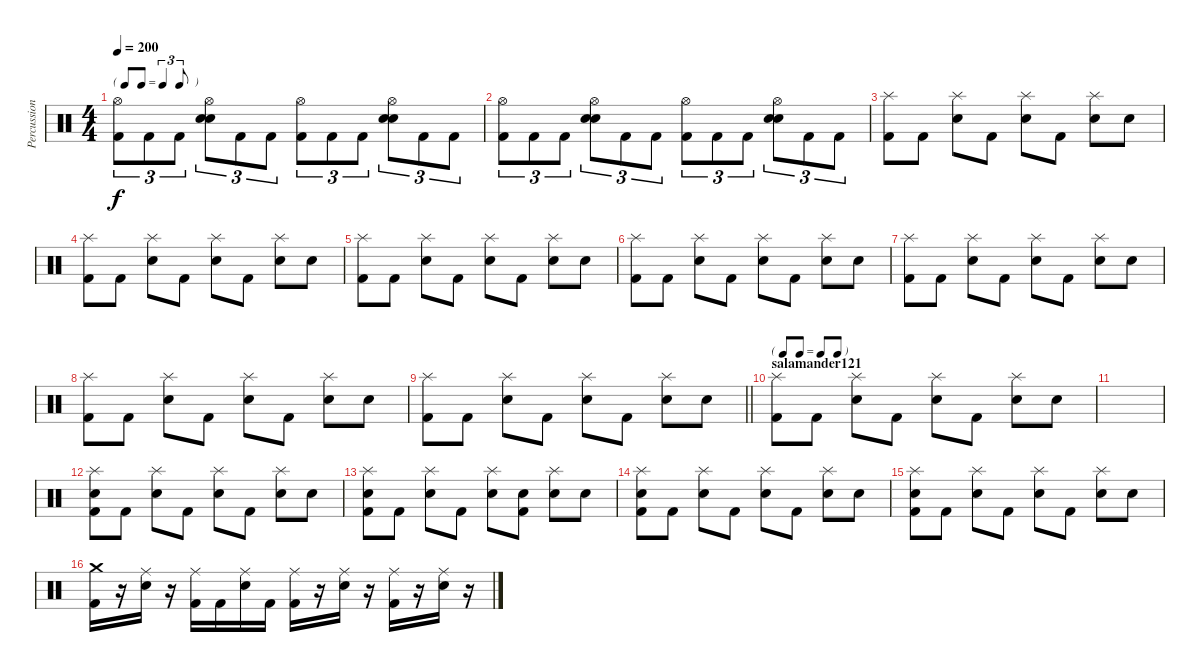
\track ("Percussion" "Percussion") {instrument percussion}
\staff {score}
\articulation defaults
\ts (4 4)
\tf triplet8th
\tempo 200
\clef neutral
\ks c
("Kick (hit) 2" "Hi-Hat (open)").8{tu (3 2) dy f} "Kick (hit) 2".8{tu (3 2)} "Kick (hit) 2".8{tu (3 2)} ("Snare (hit) 2" "Snare (hit) 2" "Hi-Hat (open)").8{tu (3 2)} "Kick (hit) 2".8{tu (3 2)} "Kick (hit) 2".8{tu (3 2)} ("Kick (hit) 2" "Hi-Hat (open)").8{tu (3 2)} "Kick (hit) 2".8{tu (3 2)} "Kick (hit) 2".8{tu (3 2)} ("Snare (hit) 2" "Snare (hit) 2" "Hi-Hat (open)").8{tu (3 2)} "Kick (hit) 2".8{tu (3 2)} "Kick (hit) 2".8{tu (3 2)} |
("Kick (hit) 2" "Hi-Hat (open)").8{tu (3 2)} "Kick (hit) 2".8{tu (3 2)} "Kick (hit) 2".8{tu (3 2)} ("Snare (hit) 2" "Snare (hit) 2" "Hi-Hat (open)").8{tu (3 2)} "Kick (hit) 2".8{tu (3 2)} "Kick (hit) 2".8{tu (3 2)} ("Kick (hit) 2" "Hi-Hat (open)").8{tu (3 2)} "Kick (hit) 2".8{tu (3 2)} "Kick (hit) 2".8{tu (3 2)} ("Snare (hit) 2" "Snare (hit) 2" "Hi-Hat (open)").8{tu (3 2)} "Kick (hit) 2".8{tu (3 2)} "Kick (hit) 2".8{tu (3 2)} |
("Kick (hit) 2" "Splash (hit)").8 "Kick (hit) 2".8 ("Snare (hit) 2" "Splash (hit)").8 "Kick (hit) 2".8 ("Snare (hit) 2" "Splash (hit)").8 "Kick (hit) 2".8 ("Snare (hit) 2" "Splash (hit)").8 "Snare (hit) 2".8 |
("Kick (hit) 2" "Splash (hit)").8 "Kick (hit) 2".8 ("Snare (hit) 2" "Splash (hit)").8 "Kick (hit) 2".8 ("Snare (hit) 2" "Splash (hit)").8 "Kick (hit) 2".8 ("Snare (hit) 2" "Splash (hit)").8 "Snare (hit) 2".8 |
("Kick (hit) 2" "Splash (hit)").8 "Kick (hit) 2".8 ("Snare (hit) 2" "Splash (hit)").8 "Kick (hit) 2".8 ("Snare (hit) 2" "Splash (hit)").8 "Kick (hit) 2".8 ("Snare (hit) 2" "Splash (hit)").8 "Snare (hit) 2".8 |
("Kick (hit) 2" "Splash (hit)").8 "Kick (hit) 2".8 ("Snare (hit) 2" "Splash (hit)").8 "Kick (hit) 2".8 ("Snare (hit) 2" "Splash (hit)").8 "Kick (hit) 2".8 ("Snare (hit) 2" "Splash (hit)").8 "Snare (hit) 2".8 |
("Kick (hit) 2" "Splash (hit)").8 "Kick (hit) 2".8 ("Snare (hit) 2" "Splash (hit)").8 "Kick (hit) 2".8 ("Snare (hit) 2" "Splash (hit)").8 "Kick (hit) 2".8 ("Snare (hit) 2" "Splash (hit)").8 "Snare (hit) 2".8 |
("Kick (hit) 2" "Splash (hit)").8 "Kick (hit) 2".8 ("Snare (hit) 2" "Splash (hit)").8 "Kick (hit) 2".8 ("Snare (hit) 2" "Splash (hit)").8 "Kick (hit) 2".8 ("Snare (hit) 2" "Splash (hit)").8 "Snare (hit) 2".8 |
\barLineRight lightlight
("Kick (hit) 2" "Splash (hit)").8 "Kick (hit) 2".8 ("Snare (hit) 2" "Splash (hit)").8 "Kick (hit) 2".8 ("Snare (hit) 2" "Splash (hit)").8 "Kick (hit) 2".8 ("Snare (hit) 2" "Splash (hit)").8 "Snare (hit) 2".8 |
\tf none
\section ("" "salamander121")
("Kick (hit) 2" "Splash (hit)").8 "Kick (hit) 2".8 ("Snare (hit) 2" "Splash (hit)").8 "Kick (hit) 2".8 ("Snare (hit) 2" "Splash (hit)").8 "Kick (hit) 2".8 ("Snare (hit) 2" "Splash (hit)").8 "Snare (hit) 2".8 |
|
("Kick (hit) 2" "Snare (hit) 2" "Splash (hit)").8 "Kick (hit) 2".8 ("Snare (hit) 2" "Splash (hit)").8 "Kick (hit) 2".8 ("Snare (hit) 2" "Splash (hit)").8 "Kick (hit) 2".8 ("Snare (hit) 2" "Splash (hit)").8 "Snare (hit) 2".8 |
("Kick (hit) 2" "Snare (hit) 2" "Splash (hit)").8 "Kick (hit) 2".8 ("Snare (hit) 2" "Splash (hit)").8 "Kick (hit) 2".8 ("Snare (hit) 2" "Splash (hit)").8 ("Kick (hit) 2" "Snare (hit) 2").8 ("Snare (hit) 2" "Splash (hit)").8 "Snare (hit) 2".8 |
("Kick (hit) 2" "Snare (hit) 2" "Splash (hit)").8 "Kick (hit) 2".8 ("Snare (hit) 2" "Splash (hit)").8 "Kick (hit) 2".8 ("Snare (hit) 2" "Splash (hit)").8 "Kick (hit) 2".8 ("Snare (hit) 2" "Splash (hit)").8 "Snare (hit) 2".8 |
("Kick (hit) 2" "Snare (hit) 2" "Splash (hit)").8 "Kick (hit) 2".8 ("Snare (hit) 2" "Splash (hit)").8 "Kick (hit) 2".8 ("Snare (hit) 2" "Splash (hit)").8 "Kick (hit) 2".8 ("Snare (hit) 2" "Splash (hit)").8 "Snare (hit) 2".8 |
("Crash medium (hit)" "Kick (hit) 2").16 r.16 ("Ride (middle)" "Electric Snare (hit)").16 r.16 ("Ride (middle)" "Kick (hit) 2").16 "Kick (hit) 2".16 ("Ride (middle)" "Electric Snare (hit)").16 "Kick (hit) 2".16 ("Ride (middle)" "Kick (hit) 2").16 r.16 ("Ride (middle)" "Electric Snare (hit)").16 r.16 ("Ride (middle)" "Kick (hit) 2").16 r.16 ("Ride (middle)" "Electric Snare (hit)").16 r.16
